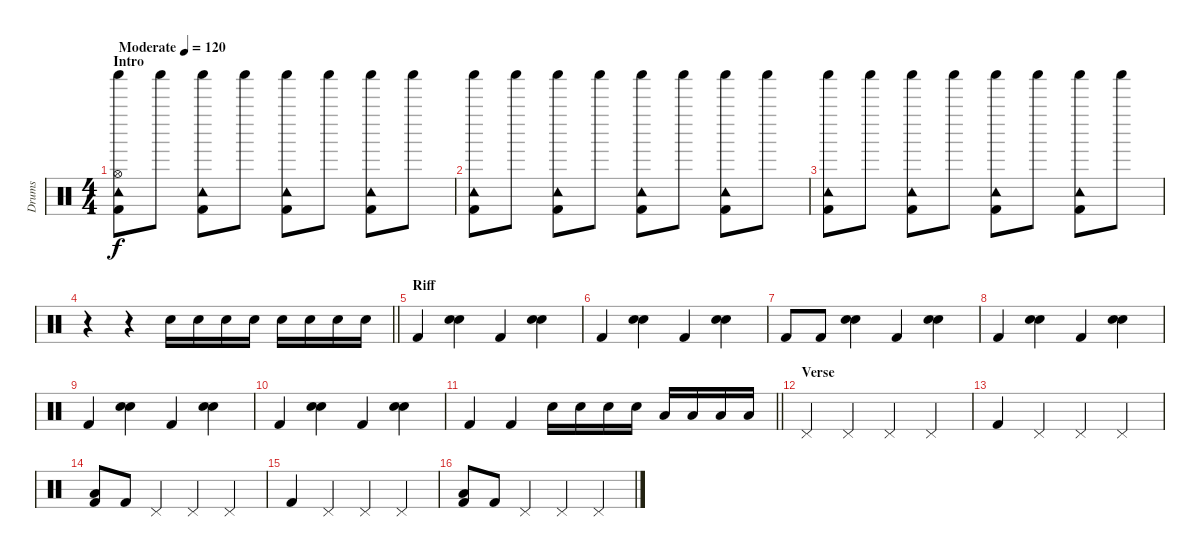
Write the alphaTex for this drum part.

\track ("Drums" "Drums") {instrument percussion}
\staff {score}
\articulation defaults
\ts (4 4)
\section ("" "Intro")
\tempo (120 "Moderate")
\clef neutral
\ks c
("Shaker (hit)" "Tambourine (hit)" "Hi-Hat (open)" "Kick (hit) 2").8{dy f} "Shaker (hit)".8 ("Shaker (hit)" "Tambourine (hit)" "Kick (hit) 2").8 "Shaker (hit)".8 ("Shaker (hit)" "Tambourine (hit)" "Kick (hit) 2").8 "Shaker (hit)".8 ("Shaker (hit)" "Tambourine (hit)" "Kick (hit) 2").8 "Shaker (hit)".8 |
("Shaker (hit)" "Tambourine (hit)" "Kick (hit) 2").8 "Shaker (hit)".8 ("Shaker (hit)" "Tambourine (hit)" "Kick (hit) 2").8 "Shaker (hit)".8 ("Shaker (hit)" "Tambourine (hit)" "Kick (hit) 2").8 "Shaker (hit)".8 ("Shaker (hit)" "Tambourine (hit)" "Kick (hit) 2").8 "Shaker (hit)".8 |
("Shaker (hit)" "Tambourine (hit)" "Kick (hit) 2").8 "Shaker (hit)".8 ("Shaker (hit)" "Tambourine (hit)" "Kick (hit) 2").8 "Shaker (hit)".8 ("Shaker (hit)" "Tambourine (hit)" "Kick (hit) 2").8 "Shaker (hit)".8 ("Shaker (hit)" "Tambourine (hit)" "Kick (hit) 2").8 "Shaker (hit)".8 |
\barLineRight lightlight
r.4 r.4 "Snare (hit) 2".16 "Snare (hit) 2".16 "Snare (hit) 2".16 "Snare (hit) 2".16 "Electric Snare (hit)".16 "Electric Snare (hit)".16 "Electric Snare (hit)".16 "Electric Snare (hit)".16 |
\section ("" "Riff")
"Kick (hit) 2".4 ("Electric Snare (hit)" "Snare (hit) 2").4 "Kick (hit) 2".4 ("Electric Snare (hit)" "Snare (hit) 2").4 |
"Kick (hit) 2".4 ("Electric Snare (hit)" "Snare (hit) 2").4 "Kick (hit) 2".4 ("Electric Snare (hit)" "Snare (hit) 2").4 |
"Kick (hit) 2".8 "Kick (hit) 2".8 ("Electric Snare (hit)" "Snare (hit) 2").4 "Kick (hit) 2".4 ("Electric Snare (hit)" "Snare (hit) 2").4 |
"Kick (hit) 2".4 ("Electric Snare (hit)" "Snare (hit) 2").4 "Kick (hit) 2".4 ("Electric Snare (hit)" "Snare (hit) 2").4 |
"Kick (hit) 2".4 ("Electric Snare (hit)" "Snare (hit) 2").4 "Kick (hit) 2".4 ("Electric Snare (hit)" "Snare (hit) 2").4 |
"Kick (hit) 2".4 ("Electric Snare (hit)" "Snare (hit) 2").4 "Kick (hit) 2".4 ("Electric Snare (hit)" "Snare (hit) 2").4 |
\barLineRight lightlight "Kick (hit) 2".4 "Kick (hit) 2".4 "Snare (hit) 2".16 "Snare (hit) 2".16 "Snare (hit) 2".16 "Snare (hit) 2".16 "Low Tom (hit)".16 "Low Tom (hit)".16 "Low Tom (hit)".16 "Low Tom (hit)".16
|
\section ("" "Verse")
"Pedal Hi-Hat (hit)".4 "Pedal Hi-Hat (hit)".4 "Pedal Hi-Hat (hit)".4 "Pedal Hi-Hat (hit)".4 |
"Kick (hit) 2".4 "Pedal Hi-Hat (hit)".4 "Pedal Hi-Hat (hit)".4 "Pedal Hi-Hat (hit)".4 |
("Low Tom (hit)" "Kick (hit) 2").8 "Kick (hit) 2".8 "Pedal Hi-Hat (hit)".4 "Pedal Hi-Hat (hit)".4 "Pedal Hi-Hat (hit)".4 |
"Kick (hit) 2".4 "Pedal Hi-Hat (hit)".4 "Pedal Hi-Hat (hit)".4 "Pedal Hi-Hat (hit)".4 |
("Low Tom (hit)" "Kick (hit) 2").8 "Kick (hit) 2".8 "Pedal Hi-Hat (hit)".4 "Pedal Hi-Hat (hit)".4 "Pedal Hi-Hat (hit)".4
